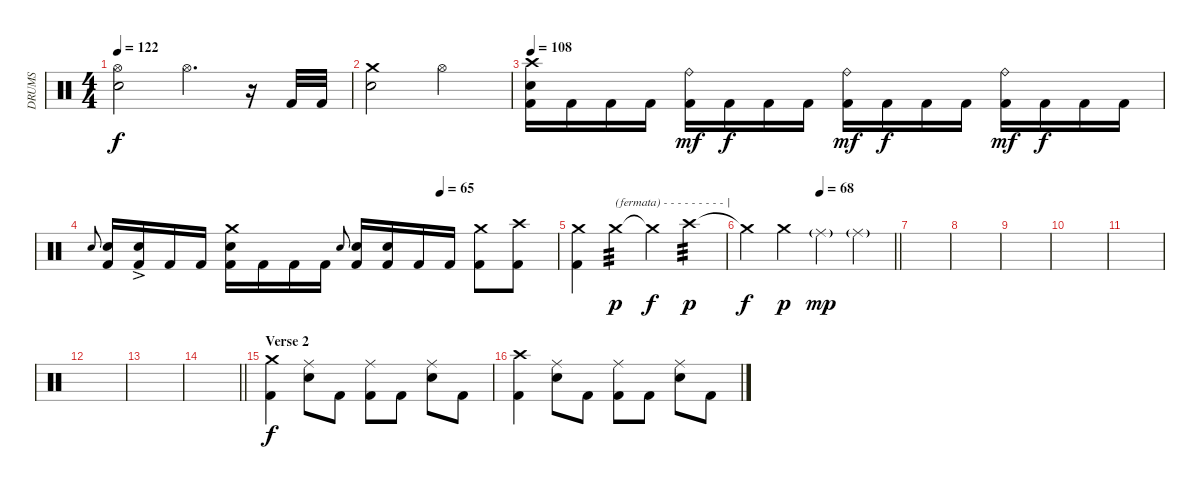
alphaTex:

\track ("DRUMS" "DRUMS") {instrument percussion}
\staff {score}
\articulation defaults
\ts (4 4)
\tempo 122
\clef neutral
\ks c
("Hi-Hat (open)" "Snare (hit) 2").2{dy f} "Hi-Hat (open)".4{d} r.16 "Kick (hit) 2".32 "Kick (hit) 2".32 |
("Crash medium (hit)" "Snare (hit) 2").2 "Hi-Hat (open)".2 |
\tempo 108
("Crash high (hit)" "Snare (hit) 2" "Kick (hit) 2").16 "Kick (hit) 2".16 "Kick (hit) 2".16 "Kick (hit) 2".16 ("Ride (bell)" "Kick (hit) 2").16{dy mf} "Kick (hit) 2".16{dy f} "Kick (hit) 2".16 "Kick (hit) 2".16 ("Ride (bell)" "Kick (hit) 2").16{dy mf} "Kick (hit) 2".16{dy f} "Kick (hit) 2".16 "Kick (hit) 2".16 ("Ride (bell)" "Kick (hit) 2").16{dy mf} "Kick (hit) 2".16{dy f} "Kick (hit) 2".16 "Kick (hit) 2".16 |
\tempo (65 0.75)
"Snare (hit) 2".8{gr onbeat} ("Snare (hit) 2" "Kick (hit) 2").16 ("Snare (hit) 2"{ac} "Kick (hit) 2").16 "Kick (hit) 2".16 "Kick (hit) 2".16 ("Crash medium (hit)" "Snare (hit) 2" "Kick (hit) 2").16 "Kick (hit) 2".16 "Kick (hit) 2".16 "Kick (hit) 2".16 "Snare (hit) 2".8{gr onbeat} ("Snare (hit) 2" "Kick (hit) 2").16 ("Snare (hit) 2" "Kick (hit) 2").16 "Kick (hit) 2".16 "Kick (hit) 2".16 ("Crash medium (hit)" "Kick (hit) 2").8 ("Crash high (hit)" "Kick (hit) 2").8 |
("Crash medium (hit)" "Kick (hit) 2").4 "Crash medium (hit)".4{txt "(fermata) - - - - - - - - - |" tp 3 dy p} "Crash medium (hit)"{t}.4{dy f} "Crash high (hit)".4{tp 3 dy p} |
\tempo (68 0.5)
\barLineRight lightlight "Crash medium (hit)"{t}.4{dy f} "Crash medium (hit)".4{dy p} "Ride (middle)"{g}.4{dy mp} "Ride (middle)"{g}.4
|
|
|
|
|
|
|
|
\barLineRight lightlight
|
\section ("" "Verse 2")
("Crash medium (hit)" "Kick (hit) 2").4{dy f} ("Ride (middle)" "Snare (hit) 2").8 "Kick (hit) 2".8 ("Ride (middle)" "Kick (hit) 2").8 "Kick (hit) 2".8 ("Ride (middle)" "Snare (hit) 2").8 "Kick (hit) 2".8 |
("Crash high (hit)" "Kick (hit) 2").4 ("Ride (middle)" "Snare (hit) 2").8 "Kick (hit) 2".8 ("Ride (middle)" "Kick (hit) 2").8 "Kick (hit) 2".8 ("Ride (middle)" "Snare (hit) 2").8 "Kick (hit) 2".8
